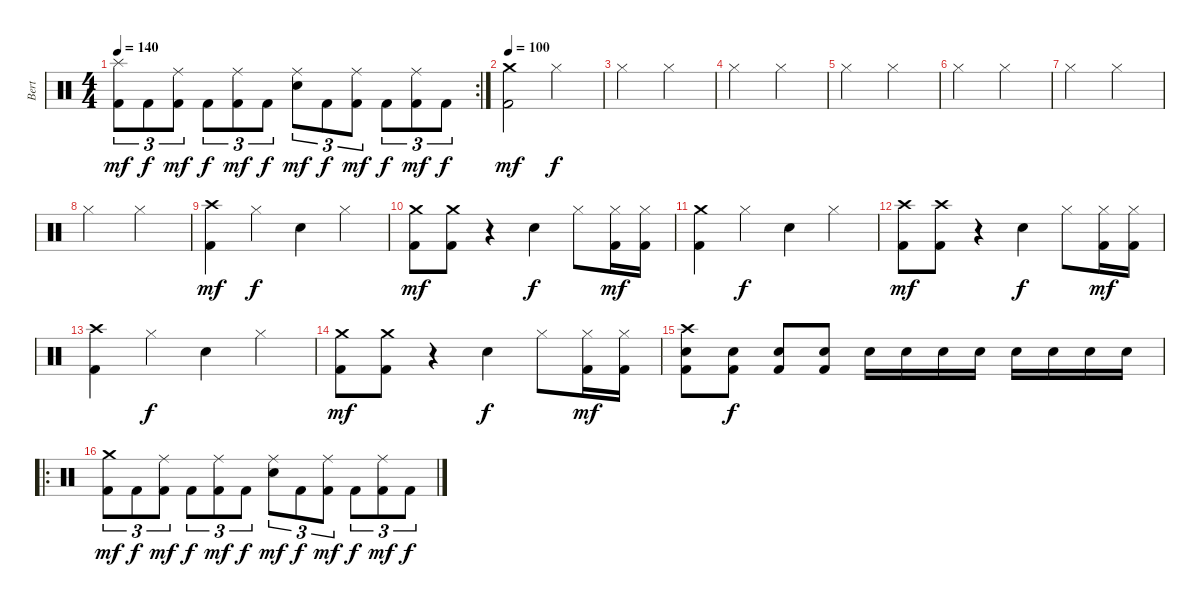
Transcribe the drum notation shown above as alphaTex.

\track ("Bert" "Bert") {instrument percussion}
\staff {score}
\articulation defaults
\rc 2
\ts (4 4)
\tempo 140
\clef neutral
\ks c
("Splash (hit)" "Kick (hit) 2").8{tu (3 2) dy mf} "Kick (hit) 2".8{tu (3 2) dy f} ("Ride (middle)" "Kick (hit) 2").8{tu (3 2) dy mf} "Kick (hit) 2".8{tu (3 2) dy f} ("Ride (middle)" "Kick (hit) 2").8{tu (3 2) dy mf} "Kick (hit) 2".8{tu (3 2) dy f} ("Ride (middle)" "Snare (hit) 2").8{tu (3 2) dy mf} "Kick (hit) 2".8{tu (3 2) dy f} ("Ride (middle)" "Kick (hit) 2").8{tu (3 2) dy mf} "Kick (hit) 2".8{tu (3 2) dy f} ("Ride (middle)" "Kick (hit) 2").8{tu (3 2) dy mf} "Kick (hit) 2".8{tu (3 2) dy f} |
\tempo 100
("Crash medium (hit)" "Kick (hit) 2").2{dy mf} "Hi-Hat (closed)".2{dy f} |
"Hi-Hat (closed)".2 "Hi-Hat (closed)".2 |
"Hi-Hat (closed)".2 "Hi-Hat (closed)".2 |
"Hi-Hat (closed)".2 "Hi-Hat (closed)".2 |
"Hi-Hat (closed)".2 "Hi-Hat (closed)".2 |
"Hi-Hat (closed)".2 "Hi-Hat (closed)".2 |
"Hi-Hat (closed)".2 "Hi-Hat (closed)".2 |
("Crash high (hit)" "Kick (hit) 2").4{dy mf} "Hi-Hat (closed)".4{dy f} "Snare (hit) 2".4 "Hi-Hat (closed)".4 |
("Crash medium (hit)" "Kick (hit) 2").8{dy mf} ("Crash medium (hit)" "Kick (hit) 2").8 r.4 "Snare (hit) 2".4{dy f} "Hi-Hat (closed)".8 ("Hi-Hat (closed)" "Kick (hit) 2").16{dy mf} ("Hi-Hat (closed)" "Kick (hit) 2").16 |
("Crash medium (hit)" "Kick (hit) 2").4 "Hi-Hat (closed)".4{dy f} "Snare (hit) 2".4 "Hi-Hat (closed)".4 |
("Crash high (hit)" "Kick (hit) 2").8{dy mf} ("Crash high (hit)" "Kick (hit) 2").8 r.4 "Snare (hit) 2".4{dy f} "Hi-Hat (closed)".8 ("Hi-Hat (closed)" "Kick (hit) 2").16{dy mf} ("Hi-Hat (closed)" "Kick (hit) 2").16 |
("Crash high (hit)" "Kick (hit) 2").4 "Hi-Hat (closed)".4{dy f} "Snare (hit) 2".4 "Hi-Hat (closed)".4 |
("Crash medium (hit)" "Kick (hit) 2").8{dy mf} ("Crash medium (hit)" "Kick (hit) 2").8 r.4 "Snare (hit) 2".4{dy f} "Hi-Hat (closed)".8 ("Hi-Hat (closed)" "Kick (hit) 2").16{dy mf} ("Hi-Hat (closed)" "Kick (hit) 2").16 |
("Crash high (hit)" "Snare (hit) 2" "Kick (hit) 2").8 ("Snare (hit) 2" "Kick (hit) 2").8{dy f} ("Snare (hit) 2" "Kick (hit) 2").8 ("Snare (hit) 2" "Kick (hit) 2").8 "Snare (hit) 2".16 "Snare (hit) 2".16 "Snare (hit) 2".16 "Snare (hit) 2".16 "Snare (hit) 2".16 "Snare (hit) 2".16 "Snare (hit) 2".16 "Snare (hit) 2".16 |
\ro
("Crash medium (hit)" "Kick (hit) 2").8{tu (3 2) dy mf} "Kick (hit) 2".8{tu (3 2) dy f} ("Ride (middle)" "Kick (hit) 2").8{tu (3 2) dy mf} "Kick (hit) 2".8{tu (3 2) dy f} ("Ride (middle)" "Kick (hit) 2").8{tu (3 2) dy mf} "Kick (hit) 2".8{tu (3 2) dy f} ("Ride (middle)" "Snare (hit) 2").8{tu (3 2) dy mf} "Kick (hit) 2".8{tu (3 2) dy f} ("Ride (middle)" "Kick (hit) 2").8{tu (3 2) dy mf} "Kick (hit) 2".8{tu (3 2) dy f} ("Ride (middle)" "Kick (hit) 2").8{tu (3 2) dy mf} "Kick (hit) 2".8{tu (3 2) dy f}
